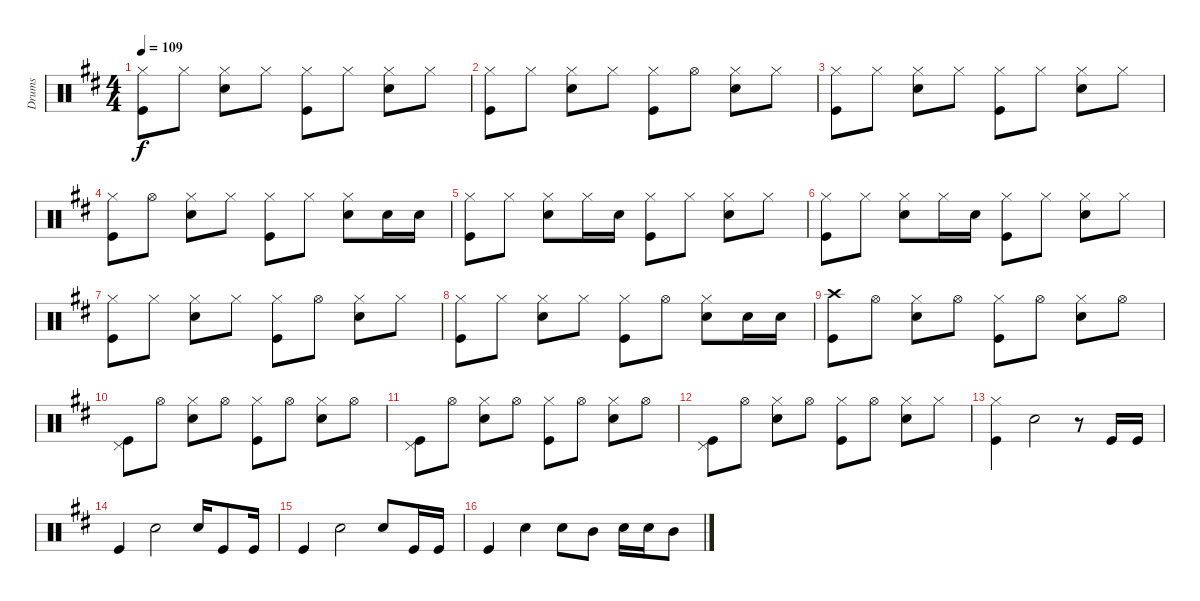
\track ("Drums" "Drums") {instrument percussion}
\staff {score}
\articulation defaults
\ts (4 4)
\tempo 109
\clef neutral
\ks d
("Hi-Hat (closed)" "Kick (hit)").8{dy f} "Hi-Hat (closed)".8 ("Hi-Hat (closed)" "Snare (hit) 2").8 "Hi-Hat (closed)".8 ("Hi-Hat (closed)" "Kick (hit)").8 "Hi-Hat (closed)".8 ("Hi-Hat (closed)" "Snare (hit) 2").8 "Hi-Hat (closed)".8 |
("Hi-Hat (closed)" "Kick (hit)").8 "Hi-Hat (closed)".8 ("Hi-Hat (closed)" "Snare (hit) 2").8 "Hi-Hat (closed)".8 ("Hi-Hat (closed)" "Kick (hit)").8 "Hi-Hat (open)".8 ("Hi-Hat (closed)" "Snare (hit) 2").8 "Hi-Hat (closed)".8 |
("Hi-Hat (closed)" "Kick (hit)").8 "Hi-Hat (closed)".8 ("Hi-Hat (closed)" "Snare (hit) 2").8 "Hi-Hat (closed)".8 ("Hi-Hat (closed)" "Kick (hit)").8 "Hi-Hat (closed)".8 ("Hi-Hat (closed)" "Snare (hit) 2").8 "Hi-Hat (closed)".8 |
("Hi-Hat (closed)" "Kick (hit)").8 "Hi-Hat (open)".8 ("Hi-Hat (closed)" "Snare (hit) 2").8 "Hi-Hat (closed)".8 ("Hi-Hat (closed)" "Kick (hit)").8 "Hi-Hat (closed)".8 ("Hi-Hat (closed)" "Snare (hit) 2").8 "Snare (hit) 2".16 "Snare (hit) 2".16 |
("Hi-Hat (closed)" "Kick (hit)").8 "Hi-Hat (closed)".8 ("Hi-Hat (closed)" "Snare (hit) 2").8 "Hi-Hat (closed)".16 "Snare (hit) 2".16 ("Hi-Hat (closed)" "Kick (hit)").8 "Hi-Hat (closed)".8 ("Hi-Hat (closed)" "Snare (hit) 2").8 "Hi-Hat (closed)".8 |
("Hi-Hat (closed)" "Kick (hit)").8 "Hi-Hat (closed)".8 ("Hi-Hat (closed)" "Snare (hit) 2").8 "Hi-Hat (closed)".16 "Snare (hit) 2".16 ("Hi-Hat (closed)" "Kick (hit)").8 "Hi-Hat (closed)".8 ("Hi-Hat (closed)" "Snare (hit) 2").8 "Hi-Hat (closed)".8 |
("Hi-Hat (closed)" "Kick (hit)").8 "Hi-Hat (closed)".8 ("Hi-Hat (closed)" "Snare (hit) 2").8 "Hi-Hat (closed)".8 ("Hi-Hat (closed)" "Kick (hit)").8 "Hi-Hat (open)".8 ("Hi-Hat (closed)" "Snare (hit) 2").8 "Hi-Hat (closed)".8 |
("Hi-Hat (closed)" "Kick (hit)").8 "Hi-Hat (closed)".8 ("Hi-Hat (closed)" "Snare (hit) 2").8 "Hi-Hat (closed)".8 ("Hi-Hat (closed)" "Kick (hit)").8 "Hi-Hat (open)".8 ("Hi-Hat (closed)" "Snare (hit) 2").8 "Snare (hit) 2".16 "Snare (hit) 2".16 |
("Crash high (hit)" "Kick (hit)").8 "Hi-Hat (open)".8 ("Hi-Hat (closed)" "Snare (hit) 2").8 "Hi-Hat (open)".8 ("Hi-Hat (closed)" "Kick (hit)").8 "Hi-Hat (open)".8 ("Hi-Hat (closed)" "Snare (hit) 2").8 "Hi-Hat (open)".8 |
("Pedal Hi-Hat (hit)" "Kick (hit)").8 "Hi-Hat (open)".8 ("Hi-Hat (closed)" "Snare (hit) 2").8 "Hi-Hat (open)".8 ("Hi-Hat (closed)" "Kick (hit)").8 "Hi-Hat (open)".8 ("Hi-Hat (closed)" "Snare (hit) 2").8 "Hi-Hat (open)".8 |
("Pedal Hi-Hat (hit)" "Kick (hit)").8 "Hi-Hat (open)".8 ("Hi-Hat (closed)" "Snare (hit) 2").8 "Hi-Hat (open)".8 ("Hi-Hat (closed)" "Kick (hit)").8 "Hi-Hat (open)".8 ("Hi-Hat (closed)" "Snare (hit) 2").8 "Hi-Hat (open)".8 |
("Pedal Hi-Hat (hit)" "Kick (hit)").8 "Hi-Hat (open)".8 ("Hi-Hat (closed)" "Snare (hit) 2").8 "Hi-Hat (open)".8 ("Hi-Hat (closed)" "Kick (hit)").8 "Hi-Hat (open)".8 ("Hi-Hat (closed)" "Snare (hit) 2").8 "Hi-Hat (closed)".8 |
("Hi-Hat (closed)" "Kick (hit)").4 "Snare (hit) 2".2 r.8 "Kick (hit)".16 "Kick (hit)".16 |
"Kick (hit)".4 "Snare (hit) 2".2 "Snare (hit) 2".16 "Kick (hit)".8 "Kick (hit)".16 |
"Kick (hit)".4 "Snare (hit) 2".2 "Snare (hit) 2".8 "Kick (hit)".16 "Kick (hit)".16 |
"Kick (hit)".4 "Snare (hit) 2".4 "Snare (hit) 2".8 "Mid Tom (hit)".8 "Snare (hit) 2".16 "Snare (hit) 2".16 "Mid Tom (hit)".8
